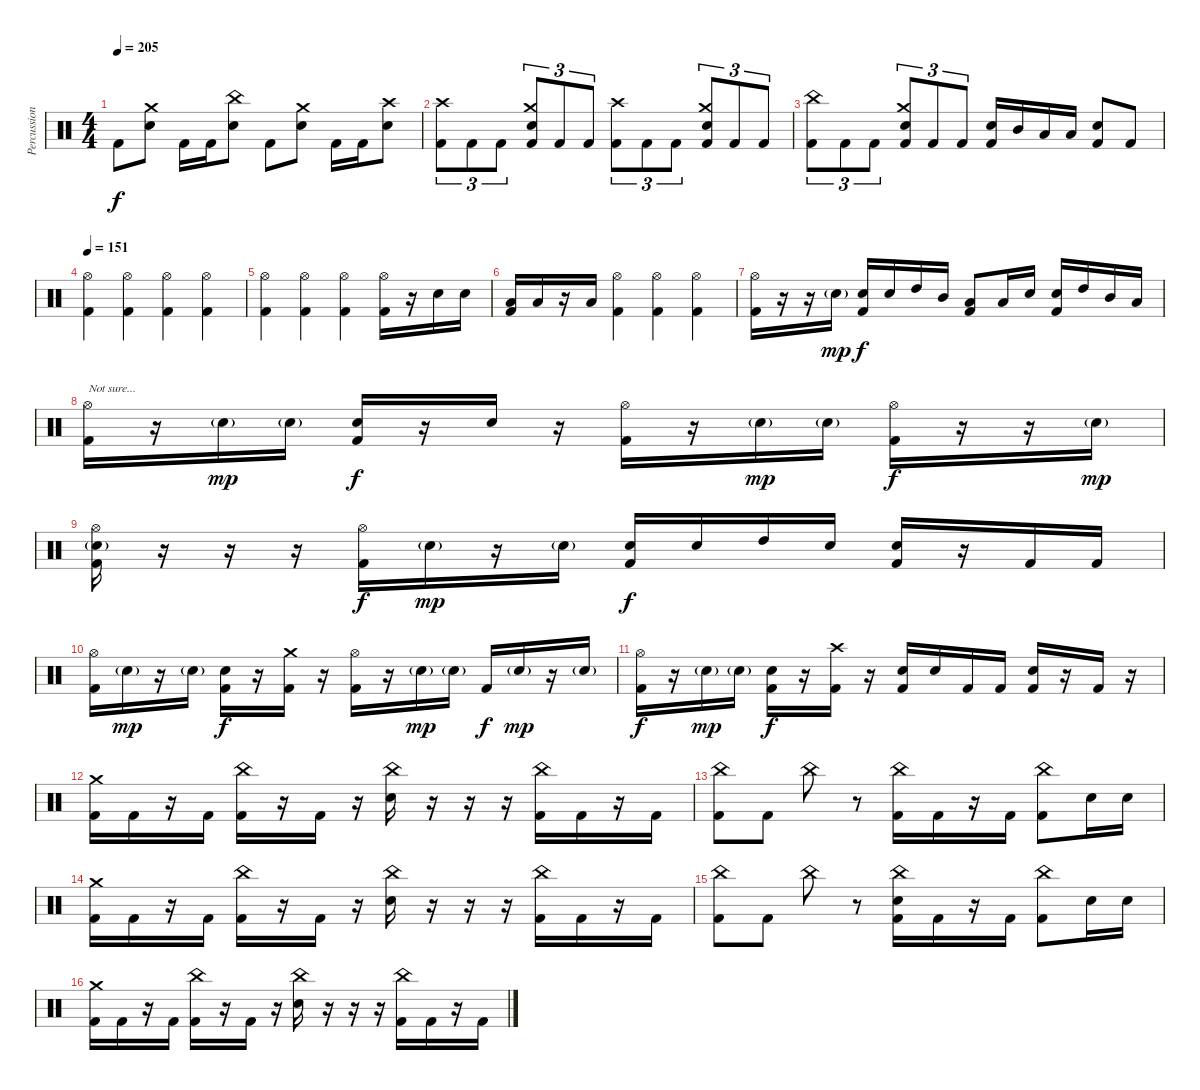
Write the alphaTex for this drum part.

\track ("Percussion" "Percussion") {instrument percussion}
\staff {score}
\articulation defaults
\ts (4 4)
\tempo 205
\clef neutral
\ks c "Kick (hit) 2".8{dy f}
("Crash medium (hit)" "Electric Snare (hit)").8 "Kick (hit) 2".16 "Kick (hit) 2".16 ("China (hit)" "Electric Snare (hit)").8 "Kick (hit) 2".8 ("Crash medium (hit)" "Electric Snare (hit)").8 "Kick (hit) 2".16 "Kick (hit) 2".16 ("Crash high (hit)" "Electric Snare (hit)").8 |
("Crash high (hit)" "Kick (hit) 2").8{tu (3 2)} "Kick (hit) 2".8{tu (3 2)} "Kick (hit) 2".8{tu (3 2)} ("Crash medium (hit)" "Electric Snare (hit)" "Kick (hit) 2").8{tu (3 2)} "Kick (hit) 2".8{tu (3 2)} "Kick (hit) 2".8{tu (3 2)} ("Crash high (hit)" "Kick (hit) 2").8{tu (3 2)} "Kick (hit) 2".8{tu (3 2)} "Kick (hit) 2".8{tu (3 2)} ("Crash medium (hit)" "Electric Snare (hit)" "Kick (hit) 2").8{tu (3 2)} "Kick (hit) 2".8{tu (3 2)} "Kick (hit) 2".8{tu (3 2)} |
("China (hit)" "Kick (hit) 2").8{tu (3 2)} "Kick (hit) 2".8{tu (3 2)} "Kick (hit) 2".8{tu (3 2)} ("Crash medium (hit)" "Electric Snare (hit)" "Kick (hit) 2").8{tu (3 2)} "Kick (hit) 2".8{tu (3 2)} "Kick (hit) 2".8{tu (3 2)} ("Electric Snare (hit)" "Kick (hit) 2").16 "Mid Tom (hit)".16 "Low Tom (hit)".16 "Low Tom (hit)".16 ("Electric Snare (hit)" "Kick (hit) 2").8 "Kick (hit) 2".8 |
\tempo 151
("Hi-Hat (open)" "Kick (hit) 2").4 ("Hi-Hat (open)" "Kick (hit) 2").4 ("Hi-Hat (open)" "Kick (hit) 2").4 ("Hi-Hat (open)" "Kick (hit) 2").4 |
("Hi-Hat (open)" "Kick (hit) 2").4 ("Hi-Hat (open)" "Kick (hit) 2").4 ("Hi-Hat (open)" "Kick (hit) 2").4 ("Hi-Hat (open)" "Kick (hit) 2").16 r.16 "Electric Snare (hit)".16 "Electric Snare (hit)".16 |
("Low Tom (hit)" "Kick (hit) 2").16 "Low Tom (hit)".16 r.16 "Low Tom (hit)".16 ("Hi-Hat (open)" "Kick (hit) 2").4 ("Hi-Hat (open)" "Kick (hit) 2").4 ("Hi-Hat (open)" "Kick (hit) 2").4 |
("Hi-Hat (open)" "Kick (hit) 2").16 r.16 r.16 "Electric Snare (hit)"{g}.16{dy mp} ("Electric Snare (hit)" "Kick (hit) 2").16{dy f} "Electric Snare (hit)".16 "High Tom (hit)".16 "Mid Tom (hit)".16 ("Low Tom (hit)" "Kick (hit) 2").8 "Low Tom (hit)".16 "Electric Snare (hit)".16 ("Electric Snare (hit)" "Kick (hit) 2").16 "High Tom (hit)".16 "Mid Tom (hit)".16 "Low Tom (hit)".16 |
("Hi-Hat (open)" "Kick (hit) 2").16{txt "Not sure..."} r.16 "Electric Snare (hit)"{g}.16{dy mp} "Electric Snare (hit)"{g}.16 ("Electric Snare (hit)" "Kick (hit) 2").16{dy f} r.16 "Electric Snare (hit)".16 r.16 ("Hi-Hat (open)" "Kick (hit) 2").16 r.16 "Electric Snare (hit)"{g}.16{dy mp} "Electric Snare (hit)"{g}.16 ("Hi-Hat (open)" "Kick (hit) 2").16{dy f} r.16 r.16 "Electric Snare (hit)"{g}.16{dy mp} |
("Hi-Hat (open)" "Electric Snare (hit)"{g} "Kick (hit) 2").16 r.16 r.16 r.16 ("Hi-Hat (open)" "Kick (hit) 2").16{dy f} "Electric Snare (hit)"{g}.16{dy mp} r.16 "Electric Snare (hit)"{g}.16 ("Electric Snare (hit)" "Kick (hit) 2").16{dy f} "Electric Snare (hit)".16 "High Tom (hit)".16 "Electric Snare (hit)".16 ("Electric Snare (hit)" "Kick (hit) 2").16 r.16 "Kick (hit) 2".16 "Kick (hit) 2".16 |
("Hi-Hat (open)" "Kick (hit) 2").16 "Electric Snare (hit)"{g}.16{dy mp} r.16 "Electric Snare (hit)"{g}.16 ("Electric Snare (hit)" "Kick (hit) 2").16{dy f} r.16 ("Crash medium (hit)" "Kick (hit) 2").16 r.16 ("Hi-Hat (open)" "Kick (hit) 2").16 r.16 "Electric Snare (hit)"{g}.16{dy mp} "Electric Snare (hit)"{g}.16 "Kick (hit) 2".16{dy f} "Electric Snare (hit)"{g}.16{dy mp} r.16 "Electric Snare (hit)"{g}.16 |
("Hi-Hat (open)" "Kick (hit) 2").16{dy f} r.16 "Electric Snare (hit)"{g}.16{dy mp} "Electric Snare (hit)"{g}.16 ("Electric Snare (hit)" "Kick (hit) 2").16{dy f} r.16 ("Crash high (hit)" "Kick (hit) 2").16 r.16 ("Electric Snare (hit)" "Kick (hit) 2").16 "Electric Snare (hit)".16 "Kick (hit) 2".16 "Kick (hit) 2".16 ("Electric Snare (hit)" "Kick (hit) 2").16 r.16 "Kick (hit) 2".16 r.16 |
("Crash medium (hit)" "Kick (hit) 2").16 "Kick (hit) 2".16 r.16 "Kick (hit) 2".16 ("China (hit)" "Kick (hit) 2").16 r.16 "Kick (hit) 2".16 r.16 ("China (hit)" "Electric Snare (hit)").16 r.16 r.16 r.16 ("China (hit)" "Kick (hit) 2").16 "Kick (hit) 2".16 r.16 "Kick (hit) 2".16 |
("China (hit)" "Kick (hit) 2").8 "Kick (hit) 2".8 "China (hit)".8 r.8 ("China (hit)" "Kick (hit) 2").16 "Kick (hit) 2".16 r.16 "Kick (hit) 2".16 ("China (hit)" "Kick (hit) 2").8 "Electric Snare (hit)".16 "Electric Snare (hit)".16 |
("Crash medium (hit)" "Kick (hit) 2").16 "Kick (hit) 2".16 r.16 "Kick (hit) 2".16 ("China (hit)" "Kick (hit) 2").16 r.16 "Kick (hit) 2".16 r.16 ("China (hit)" "Electric Snare (hit)").16 r.16 r.16 r.16 ("China (hit)" "Kick (hit) 2").16 "Kick (hit) 2".16 r.16 "Kick (hit) 2".16 |
("China (hit)" "Kick (hit) 2").8 "Kick (hit) 2".8 "China (hit)".8 r.8 ("China (hit)" "Electric Snare (hit)" "Kick (hit) 2").16 "Kick (hit) 2".16 r.16 "Kick (hit) 2".16 ("China (hit)" "Kick (hit) 2").8 "Electric Snare (hit)".16 "Electric Snare (hit)".16 |
("Crash medium (hit)" "Kick (hit) 2").16 "Kick (hit) 2".16 r.16 "Kick (hit) 2".16 ("China (hit)" "Kick (hit) 2").16 r.16 "Kick (hit) 2".16 r.16 ("China (hit)" "Electric Snare (hit)").16 r.16 r.16 r.16 ("China (hit)" "Kick (hit) 2").16 "Kick (hit) 2".16 r.16 "Kick (hit) 2".16
